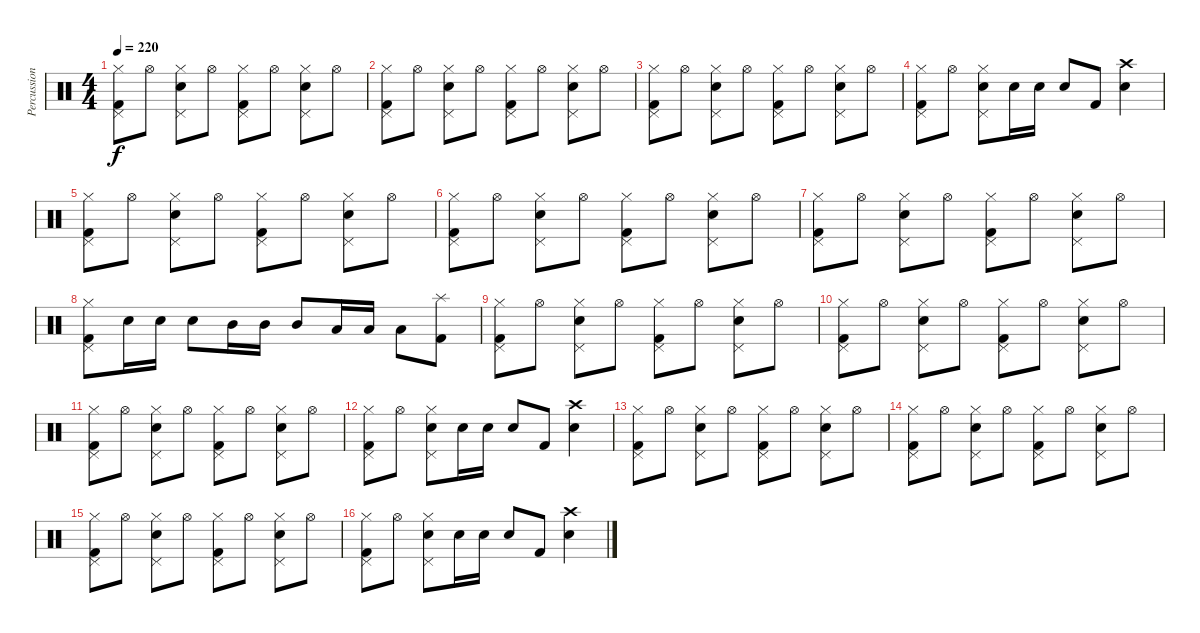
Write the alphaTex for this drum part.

\track ("Percussion" "Percussion") {instrument percussion}
\staff {score}
\articulation defaults
\ts (4 4)
\tempo 220
\clef neutral
\ks c
("Hi-Hat (closed)" "Pedal Hi-Hat (hit)" "Kick (hit) 2").8{dy f} "Hi-Hat (open)".8 ("Hi-Hat (closed)" "Pedal Hi-Hat (hit)" "Electric Snare (hit)").8 "Hi-Hat (open)".8 ("Hi-Hat (closed)" "Pedal Hi-Hat (hit)" "Kick (hit) 2").8 "Hi-Hat (open)".8 ("Hi-Hat (closed)" "Pedal Hi-Hat (hit)" "Electric Snare (hit)").8 "Hi-Hat (open)".8 |
("Hi-Hat (closed)" "Pedal Hi-Hat (hit)" "Kick (hit) 2").8 "Hi-Hat (open)".8 ("Hi-Hat (closed)" "Pedal Hi-Hat (hit)" "Electric Snare (hit)").8 "Hi-Hat (open)".8 ("Hi-Hat (closed)" "Pedal Hi-Hat (hit)" "Kick (hit) 2").8 "Hi-Hat (open)".8 ("Hi-Hat (closed)" "Pedal Hi-Hat (hit)" "Electric Snare (hit)").8 "Hi-Hat (open)".8 |
("Hi-Hat (closed)" "Pedal Hi-Hat (hit)" "Kick (hit) 2").8 "Hi-Hat (open)".8 ("Hi-Hat (closed)" "Pedal Hi-Hat (hit)" "Electric Snare (hit)").8 "Hi-Hat (open)".8 ("Hi-Hat (closed)" "Pedal Hi-Hat (hit)" "Kick (hit) 2").8 "Hi-Hat (open)".8 ("Hi-Hat (closed)" "Pedal Hi-Hat (hit)" "Electric Snare (hit)").8 "Hi-Hat (open)".8 |
("Hi-Hat (closed)" "Pedal Hi-Hat (hit)" "Kick (hit) 2").8 "Hi-Hat (open)".8 ("Hi-Hat (closed)" "Pedal Hi-Hat (hit)" "Electric Snare (hit)").8 "Electric Snare (hit)".16 "Electric Snare (hit)".16 "Electric Snare (hit)".8 "Kick (hit) 2".8 ("Crash high (hit)" "Electric Snare (hit)").4 |
("Hi-Hat (closed)" "Pedal Hi-Hat (hit)" "Kick (hit) 2").8 "Hi-Hat (open)".8 ("Hi-Hat (closed)" "Pedal Hi-Hat (hit)" "Electric Snare (hit)").8 "Hi-Hat (open)".8 ("Hi-Hat (closed)" "Pedal Hi-Hat (hit)" "Kick (hit) 2").8 "Hi-Hat (open)".8 ("Hi-Hat (closed)" "Pedal Hi-Hat (hit)" "Electric Snare (hit)").8 "Hi-Hat (open)".8 |
("Hi-Hat (closed)" "Pedal Hi-Hat (hit)" "Kick (hit) 2").8 "Hi-Hat (open)".8 ("Hi-Hat (closed)" "Pedal Hi-Hat (hit)" "Electric Snare (hit)").8 "Hi-Hat (open)".8 ("Hi-Hat (closed)" "Pedal Hi-Hat (hit)" "Kick (hit) 2").8 "Hi-Hat (open)".8 ("Hi-Hat (closed)" "Pedal Hi-Hat (hit)" "Electric Snare (hit)").8 "Hi-Hat (open)".8 |
("Hi-Hat (closed)" "Pedal Hi-Hat (hit)" "Kick (hit) 2").8 "Hi-Hat (open)".8 ("Hi-Hat (closed)" "Pedal Hi-Hat (hit)" "Electric Snare (hit)").8 "Hi-Hat (open)".8 ("Hi-Hat (closed)" "Pedal Hi-Hat (hit)" "Kick (hit) 2").8 "Hi-Hat (open)".8 ("Hi-Hat (closed)" "Pedal Hi-Hat (hit)" "Electric Snare (hit)").8 "Hi-Hat (open)".8 |
("Hi-Hat (closed)" "Pedal Hi-Hat (hit)" "Kick (hit) 2").8 "Electric Snare (hit)".16 "Electric Snare (hit)".16 "Electric Snare (hit)".8 "Mid Tom (hit)".16 "Mid Tom (hit)".16 "Mid Tom (hit)".8 "Low Tom (hit)".16 "Low Tom (hit)".16 "Low Tom (hit)".8 ("Splash (hit)" "Kick (hit) 2").8 |
("Hi-Hat (closed)" "Pedal Hi-Hat (hit)" "Kick (hit) 2").8 "Hi-Hat (open)".8 ("Hi-Hat (closed)" "Pedal Hi-Hat (hit)" "Electric Snare (hit)").8 "Hi-Hat (open)".8 ("Hi-Hat (closed)" "Pedal Hi-Hat (hit)" "Kick (hit) 2").8 "Hi-Hat (open)".8 ("Hi-Hat (closed)" "Pedal Hi-Hat (hit)" "Electric Snare (hit)").8 "Hi-Hat (open)".8 |
("Hi-Hat (closed)" "Pedal Hi-Hat (hit)" "Kick (hit) 2").8 "Hi-Hat (open)".8 ("Hi-Hat (closed)" "Pedal Hi-Hat (hit)" "Electric Snare (hit)").8 "Hi-Hat (open)".8 ("Hi-Hat (closed)" "Pedal Hi-Hat (hit)" "Kick (hit) 2").8 "Hi-Hat (open)".8 ("Hi-Hat (closed)" "Pedal Hi-Hat (hit)" "Electric Snare (hit)").8 "Hi-Hat (open)".8 |
("Hi-Hat (closed)" "Pedal Hi-Hat (hit)" "Kick (hit) 2").8 "Hi-Hat (open)".8 ("Hi-Hat (closed)" "Pedal Hi-Hat (hit)" "Electric Snare (hit)").8 "Hi-Hat (open)".8 ("Hi-Hat (closed)" "Pedal Hi-Hat (hit)" "Kick (hit) 2").8 "Hi-Hat (open)".8 ("Hi-Hat (closed)" "Pedal Hi-Hat (hit)" "Electric Snare (hit)").8 "Hi-Hat (open)".8 |
("Hi-Hat (closed)" "Pedal Hi-Hat (hit)" "Kick (hit) 2").8 "Hi-Hat (open)".8 ("Hi-Hat (closed)" "Pedal Hi-Hat (hit)" "Electric Snare (hit)").8 "Electric Snare (hit)".16 "Electric Snare (hit)".16 "Electric Snare (hit)".8 "Kick (hit) 2".8 ("Crash high (hit)" "Electric Snare (hit)").4 |
("Hi-Hat (closed)" "Pedal Hi-Hat (hit)" "Kick (hit) 2").8 "Hi-Hat (open)".8 ("Hi-Hat (closed)" "Pedal Hi-Hat (hit)" "Electric Snare (hit)").8 "Hi-Hat (open)".8 ("Hi-Hat (closed)" "Pedal Hi-Hat (hit)" "Kick (hit) 2").8 "Hi-Hat (open)".8 ("Hi-Hat (closed)" "Pedal Hi-Hat (hit)" "Electric Snare (hit)").8 "Hi-Hat (open)".8 |
("Hi-Hat (closed)" "Pedal Hi-Hat (hit)" "Kick (hit) 2").8 "Hi-Hat (open)".8 ("Hi-Hat (closed)" "Pedal Hi-Hat (hit)" "Electric Snare (hit)").8 "Hi-Hat (open)".8 ("Hi-Hat (closed)" "Pedal Hi-Hat (hit)" "Kick (hit) 2").8 "Hi-Hat (open)".8 ("Hi-Hat (closed)" "Pedal Hi-Hat (hit)" "Electric Snare (hit)").8 "Hi-Hat (open)".8 |
("Hi-Hat (closed)" "Pedal Hi-Hat (hit)" "Kick (hit) 2").8 "Hi-Hat (open)".8 ("Hi-Hat (closed)" "Pedal Hi-Hat (hit)" "Electric Snare (hit)").8 "Hi-Hat (open)".8 ("Hi-Hat (closed)" "Pedal Hi-Hat (hit)" "Kick (hit) 2").8 "Hi-Hat (open)".8 ("Hi-Hat (closed)" "Pedal Hi-Hat (hit)" "Electric Snare (hit)").8 "Hi-Hat (open)".8 |
("Hi-Hat (closed)" "Pedal Hi-Hat (hit)" "Kick (hit) 2").8 "Hi-Hat (open)".8 ("Hi-Hat (closed)" "Pedal Hi-Hat (hit)" "Electric Snare (hit)").8 "Electric Snare (hit)".16 "Electric Snare (hit)".16 "Electric Snare (hit)".8 "Kick (hit) 2".8 ("Crash high (hit)" "Electric Snare (hit)").4
